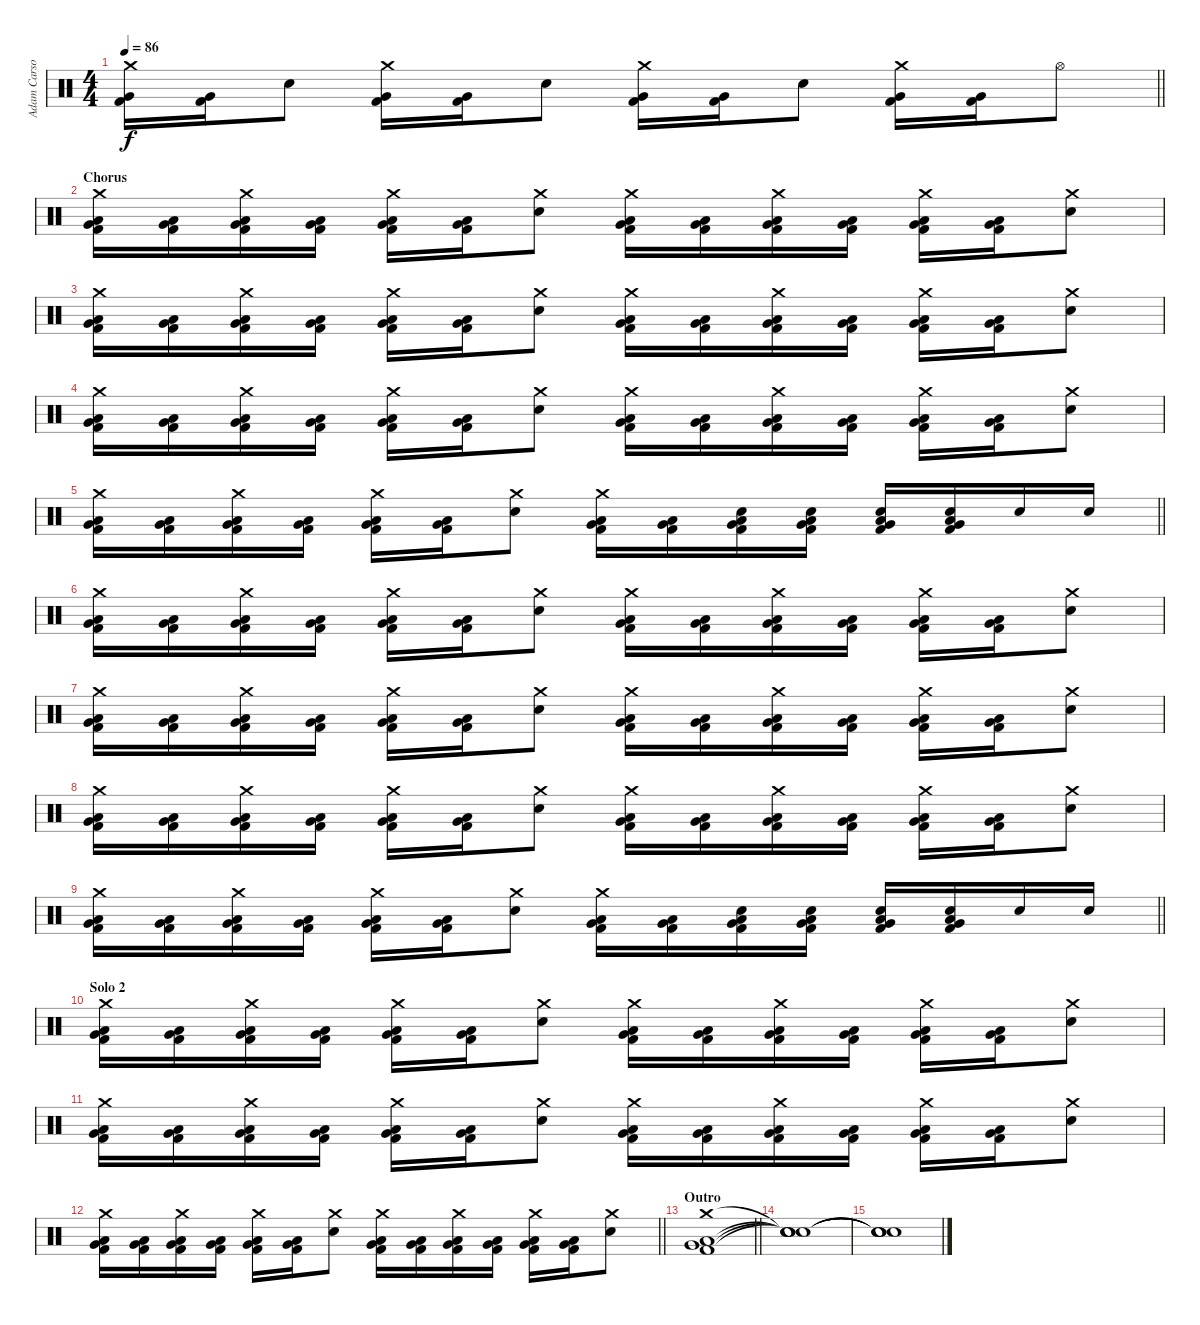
\track ("Adam Carson" "Adam Carso") {instrument percussion}
\staff {score}
\articulation defaults
\ts (4 4)
\tempo 86
\clef neutral
\barLineRight lightlight
\ks c
("Crash medium (hit)" "Very Low Tom (hit)" "Kick (hit) 2").16{dy f} ("Very Low Tom (hit)" "Kick (hit) 2").16 "Snare (hit) 2".8 ("Crash medium (hit)" "Very Low Tom (hit)" "Kick (hit) 2").16 ("Very Low Tom (hit)" "Kick (hit) 2").16 "Snare (hit) 2".8 ("Crash medium (hit)" "Very Low Tom (hit)" "Kick (hit) 2").16 ("Very Low Tom (hit)" "Kick (hit) 2").16 "Snare (hit) 2".8 ("Crash medium (hit)" "Very Low Tom (hit)" "Kick (hit) 2").16 ("Very Low Tom (hit)" "Kick (hit) 2").16 "Hi-Hat (open)".8 |
\section ("" "Chorus")
("Crash medium (hit)" "Low Tom (hit)" "Very Low Tom (hit)" "Kick (hit) 2").16 ("Low Tom (hit)" "Very Low Tom (hit)" "Kick (hit) 2").16 ("Crash medium (hit)" "Low Tom (hit)" "Very Low Tom (hit)" "Kick (hit) 2").16 ("Low Tom (hit)" "Very Low Tom (hit)" "Kick (hit) 2").16 ("Crash medium (hit)" "Low Tom (hit)" "Very Low Tom (hit)" "Kick (hit) 2").16 ("Low Tom (hit)" "Very Low Tom (hit)" "Kick (hit) 2").16 ("Crash medium (hit)" "Snare (hit) 2").8 ("Crash medium (hit)" "Low Tom (hit)" "Very Low Tom (hit)" "Kick (hit) 2").16 ("Low Tom (hit)" "Very Low Tom (hit)" "Kick (hit) 2").16 ("Crash medium (hit)" "Low Tom (hit)" "Very Low Tom (hit)" "Kick (hit) 2").16 ("Low Tom (hit)" "Very Low Tom (hit)" "Kick (hit) 2").16 ("Crash medium (hit)" "Low Tom (hit)" "Very Low Tom (hit)" "Kick (hit) 2").16 ("Low Tom (hit)" "Very Low Tom (hit)" "Kick (hit) 2").16 ("Crash medium (hit)" "Snare (hit) 2").8 |
("Crash medium (hit)" "Low Tom (hit)" "Very Low Tom (hit)" "Kick (hit) 2").16 ("Low Tom (hit)" "Very Low Tom (hit)" "Kick (hit) 2").16 ("Crash medium (hit)" "Low Tom (hit)" "Very Low Tom (hit)" "Kick (hit) 2").16 ("Low Tom (hit)" "Very Low Tom (hit)" "Kick (hit) 2").16 ("Crash medium (hit)" "Low Tom (hit)" "Very Low Tom (hit)" "Kick (hit) 2").16 ("Low Tom (hit)" "Very Low Tom (hit)" "Kick (hit) 2").16 ("Crash medium (hit)" "Snare (hit) 2").8 ("Crash medium (hit)" "Low Tom (hit)" "Very Low Tom (hit)" "Kick (hit) 2").16 ("Low Tom (hit)" "Very Low Tom (hit)" "Kick (hit) 2").16 ("Crash medium (hit)" "Low Tom (hit)" "Very Low Tom (hit)" "Kick (hit) 2").16 ("Low Tom (hit)" "Very Low Tom (hit)" "Kick (hit) 2").16 ("Crash medium (hit)" "Low Tom (hit)" "Very Low Tom (hit)" "Kick (hit) 2").16 ("Low Tom (hit)" "Very Low Tom (hit)" "Kick (hit) 2").16 ("Crash medium (hit)" "Snare (hit) 2").8 |
("Crash medium (hit)" "Low Tom (hit)" "Very Low Tom (hit)" "Kick (hit) 2").16 ("Low Tom (hit)" "Very Low Tom (hit)" "Kick (hit) 2").16 ("Crash medium (hit)" "Low Tom (hit)" "Very Low Tom (hit)" "Kick (hit) 2").16 ("Low Tom (hit)" "Very Low Tom (hit)" "Kick (hit) 2").16 ("Crash medium (hit)" "Low Tom (hit)" "Very Low Tom (hit)" "Kick (hit) 2").16 ("Low Tom (hit)" "Very Low Tom (hit)" "Kick (hit) 2").16 ("Crash medium (hit)" "Snare (hit) 2").8 ("Crash medium (hit)" "Low Tom (hit)" "Very Low Tom (hit)" "Kick (hit) 2").16 ("Low Tom (hit)" "Very Low Tom (hit)" "Kick (hit) 2").16 ("Crash medium (hit)" "Low Tom (hit)" "Very Low Tom (hit)" "Kick (hit) 2").16 ("Low Tom (hit)" "Very Low Tom (hit)" "Kick (hit) 2").16 ("Crash medium (hit)" "Low Tom (hit)" "Very Low Tom (hit)" "Kick (hit) 2").16 ("Low Tom (hit)" "Very Low Tom (hit)" "Kick (hit) 2").16 ("Crash medium (hit)" "Snare (hit) 2").8 |
\barLineRight lightlight
("Crash medium (hit)" "Low Tom (hit)" "Very Low Tom (hit)" "Kick (hit) 2").16 ("Low Tom (hit)" "Very Low Tom (hit)" "Kick (hit) 2").16 ("Crash medium (hit)" "Low Tom (hit)" "Very Low Tom (hit)" "Kick (hit) 2").16 ("Low Tom (hit)" "Very Low Tom (hit)" "Kick (hit) 2").16 ("Crash medium (hit)" "Low Tom (hit)" "Very Low Tom (hit)" "Kick (hit) 2").16 ("Low Tom (hit)" "Very Low Tom (hit)" "Kick (hit) 2").16 ("Crash medium (hit)" "Snare (hit) 2").8 ("Crash medium (hit)" "Low Tom (hit)" "Very Low Tom (hit)" "Kick (hit) 2").16 ("Low Tom (hit)" "Very Low Tom (hit)" "Kick (hit) 2").16 ("Snare (hit) 2" "Low Tom (hit)" "Very Low Tom (hit)" "Kick (hit) 2").16 ("Snare (hit) 2" "Low Tom (hit)" "Very Low Tom (hit)" "Kick (hit) 2").16 ("Snare (hit) 2" "Low Tom (hit)" "Very Low Tom (hit)" "Kick (hit) 2").16 ("Snare (hit) 2" "Low Tom (hit)" "Very Low Tom (hit)" "Kick (hit) 2").16 "Snare (hit) 2".16 "Snare (hit) 2".16 |
("Crash medium (hit)" "Low Tom (hit)" "Very Low Tom (hit)" "Kick (hit) 2").16 ("Low Tom (hit)" "Very Low Tom (hit)" "Kick (hit) 2").16 ("Crash medium (hit)" "Low Tom (hit)" "Very Low Tom (hit)" "Kick (hit) 2").16 ("Low Tom (hit)" "Very Low Tom (hit)" "Kick (hit) 2").16 ("Crash medium (hit)" "Low Tom (hit)" "Very Low Tom (hit)" "Kick (hit) 2").16 ("Low Tom (hit)" "Very Low Tom (hit)" "Kick (hit) 2").16 ("Crash medium (hit)" "Snare (hit) 2").8 ("Crash medium (hit)" "Low Tom (hit)" "Very Low Tom (hit)" "Kick (hit) 2").16 ("Low Tom (hit)" "Very Low Tom (hit)" "Kick (hit) 2").16 ("Crash medium (hit)" "Low Tom (hit)" "Very Low Tom (hit)" "Kick (hit) 2").16 ("Low Tom (hit)" "Very Low Tom (hit)" "Kick (hit) 2").16 ("Crash medium (hit)" "Low Tom (hit)" "Very Low Tom (hit)" "Kick (hit) 2").16 ("Low Tom (hit)" "Very Low Tom (hit)" "Kick (hit) 2").16 ("Crash medium (hit)" "Snare (hit) 2").8 |
("Crash medium (hit)" "Low Tom (hit)" "Very Low Tom (hit)" "Kick (hit) 2").16 ("Low Tom (hit)" "Very Low Tom (hit)" "Kick (hit) 2").16 ("Crash medium (hit)" "Low Tom (hit)" "Very Low Tom (hit)" "Kick (hit) 2").16 ("Low Tom (hit)" "Very Low Tom (hit)" "Kick (hit) 2").16 ("Crash medium (hit)" "Low Tom (hit)" "Very Low Tom (hit)" "Kick (hit) 2").16 ("Low Tom (hit)" "Very Low Tom (hit)" "Kick (hit) 2").16 ("Crash medium (hit)" "Snare (hit) 2").8 ("Crash medium (hit)" "Low Tom (hit)" "Very Low Tom (hit)" "Kick (hit) 2").16 ("Low Tom (hit)" "Very Low Tom (hit)" "Kick (hit) 2").16 ("Crash medium (hit)" "Low Tom (hit)" "Very Low Tom (hit)" "Kick (hit) 2").16 ("Low Tom (hit)" "Very Low Tom (hit)" "Kick (hit) 2").16 ("Crash medium (hit)" "Low Tom (hit)" "Very Low Tom (hit)" "Kick (hit) 2").16 ("Low Tom (hit)" "Very Low Tom (hit)" "Kick (hit) 2").16 ("Crash medium (hit)" "Snare (hit) 2").8 |
("Crash medium (hit)" "Low Tom (hit)" "Very Low Tom (hit)" "Kick (hit) 2").16 ("Low Tom (hit)" "Very Low Tom (hit)" "Kick (hit) 2").16 ("Crash medium (hit)" "Low Tom (hit)" "Very Low Tom (hit)" "Kick (hit) 2").16 ("Low Tom (hit)" "Very Low Tom (hit)" "Kick (hit) 2").16 ("Crash medium (hit)" "Low Tom (hit)" "Very Low Tom (hit)" "Kick (hit) 2").16 ("Low Tom (hit)" "Very Low Tom (hit)" "Kick (hit) 2").16 ("Crash medium (hit)" "Snare (hit) 2").8 ("Crash medium (hit)" "Low Tom (hit)" "Very Low Tom (hit)" "Kick (hit) 2").16 ("Low Tom (hit)" "Very Low Tom (hit)" "Kick (hit) 2").16 ("Crash medium (hit)" "Low Tom (hit)" "Very Low Tom (hit)" "Kick (hit) 2").16 ("Low Tom (hit)" "Very Low Tom (hit)" "Kick (hit) 2").16 ("Crash medium (hit)" "Low Tom (hit)" "Very Low Tom (hit)" "Kick (hit) 2").16 ("Low Tom (hit)" "Very Low Tom (hit)" "Kick (hit) 2").16 ("Crash medium (hit)" "Snare (hit) 2").8 |
\barLineRight lightlight
("Crash medium (hit)" "Low Tom (hit)" "Very Low Tom (hit)" "Kick (hit) 2").16 ("Low Tom (hit)" "Very Low Tom (hit)" "Kick (hit) 2").16 ("Crash medium (hit)" "Low Tom (hit)" "Very Low Tom (hit)" "Kick (hit) 2").16 ("Low Tom (hit)" "Very Low Tom (hit)" "Kick (hit) 2").16 ("Crash medium (hit)" "Low Tom (hit)" "Very Low Tom (hit)" "Kick (hit) 2").16 ("Low Tom (hit)" "Very Low Tom (hit)" "Kick (hit) 2").16 ("Crash medium (hit)" "Snare (hit) 2").8 ("Crash medium (hit)" "Low Tom (hit)" "Very Low Tom (hit)" "Kick (hit) 2").16 ("Low Tom (hit)" "Very Low Tom (hit)" "Kick (hit) 2").16 ("Snare (hit) 2" "Low Tom (hit)" "Very Low Tom (hit)" "Kick (hit) 2").16 ("Snare (hit) 2" "Low Tom (hit)" "Very Low Tom (hit)" "Kick (hit) 2").16 ("Snare (hit) 2" "Low Tom (hit)" "Very Low Tom (hit)" "Kick (hit) 2").16 ("Snare (hit) 2" "Low Tom (hit)" "Very Low Tom (hit)" "Kick (hit) 2").16 "Snare (hit) 2".16 "Snare (hit) 2".16 |
\section ("" "Solo 2")
("Crash medium (hit)" "Low Tom (hit)" "Very Low Tom (hit)" "Kick (hit) 2").16 ("Low Tom (hit)" "Very Low Tom (hit)" "Kick (hit) 2").16 ("Crash medium (hit)" "Low Tom (hit)" "Very Low Tom (hit)" "Kick (hit) 2").16 ("Low Tom (hit)" "Very Low Tom (hit)" "Kick (hit) 2").16 ("Crash medium (hit)" "Low Tom (hit)" "Very Low Tom (hit)" "Kick (hit) 2").16 ("Low Tom (hit)" "Very Low Tom (hit)" "Kick (hit) 2").16 ("Crash medium (hit)" "Snare (hit) 2").8 ("Crash medium (hit)" "Low Tom (hit)" "Very Low Tom (hit)" "Kick (hit) 2").16 ("Low Tom (hit)" "Very Low Tom (hit)" "Kick (hit) 2").16 ("Crash medium (hit)" "Low Tom (hit)" "Very Low Tom (hit)" "Kick (hit) 2").16 ("Low Tom (hit)" "Very Low Tom (hit)" "Kick (hit) 2").16 ("Crash medium (hit)" "Low Tom (hit)" "Very Low Tom (hit)" "Kick (hit) 2").16 ("Low Tom (hit)" "Very Low Tom (hit)" "Kick (hit) 2").16 ("Crash medium (hit)" "Snare (hit) 2").8 |
("Crash medium (hit)" "Low Tom (hit)" "Very Low Tom (hit)" "Kick (hit) 2").16 ("Low Tom (hit)" "Very Low Tom (hit)" "Kick (hit) 2").16 ("Crash medium (hit)" "Low Tom (hit)" "Very Low Tom (hit)" "Kick (hit) 2").16 ("Low Tom (hit)" "Very Low Tom (hit)" "Kick (hit) 2").16 ("Crash medium (hit)" "Low Tom (hit)" "Very Low Tom (hit)" "Kick (hit) 2").16 ("Low Tom (hit)" "Very Low Tom (hit)" "Kick (hit) 2").16 ("Crash medium (hit)" "Snare (hit) 2").8 ("Crash medium (hit)" "Low Tom (hit)" "Very Low Tom (hit)" "Kick (hit) 2").16 ("Low Tom (hit)" "Very Low Tom (hit)" "Kick (hit) 2").16 ("Crash medium (hit)" "Low Tom (hit)" "Very Low Tom (hit)" "Kick (hit) 2").16 ("Low Tom (hit)" "Very Low Tom (hit)" "Kick (hit) 2").16 ("Crash medium (hit)" "Low Tom (hit)" "Very Low Tom (hit)" "Kick (hit) 2").16 ("Low Tom (hit)" "Very Low Tom (hit)" "Kick (hit) 2").16 ("Crash medium (hit)" "Snare (hit) 2").8 |
\barLineRight lightlight
("Crash medium (hit)" "Low Tom (hit)" "Very Low Tom (hit)" "Kick (hit) 2").16 ("Low Tom (hit)" "Very Low Tom (hit)" "Kick (hit) 2").16 ("Crash medium (hit)" "Low Tom (hit)" "Very Low Tom (hit)" "Kick (hit) 2").16 ("Low Tom (hit)" "Very Low Tom (hit)" "Kick (hit) 2").16 ("Crash medium (hit)" "Low Tom (hit)" "Very Low Tom (hit)" "Kick (hit) 2").16 ("Low Tom (hit)" "Very Low Tom (hit)" "Kick (hit) 2").16 ("Crash medium (hit)" "Snare (hit) 2").8 ("Crash medium (hit)" "Low Tom (hit)" "Very Low Tom (hit)" "Kick (hit) 2").16 ("Low Tom (hit)" "Very Low Tom (hit)" "Kick (hit) 2").16 ("Crash medium (hit)" "Low Tom (hit)" "Very Low Tom (hit)" "Kick (hit) 2").16 ("Low Tom (hit)" "Very Low Tom (hit)" "Kick (hit) 2").16 ("Crash medium (hit)" "Low Tom (hit)" "Very Low Tom (hit)" "Kick (hit) 2").16 ("Low Tom (hit)" "Very Low Tom (hit)" "Kick (hit) 2").16 ("Crash medium (hit)" "Snare (hit) 2").8 |
\section ("" "Outro")
\barLineRight lightlight
("Crash medium (hit)" "Low Tom (hit)" "Very Low Tom (hit)" "Kick (hit) 2").1 |
("Snare (hit)"{t} "Snare (hit)"{t} "Snare (hit)"{t} "Snare (hit)"{t}).1 |
("Snare (hit)"{t} "Snare (hit)"{t} "Snare (hit)"{t} "Snare (hit)"{t}).1
